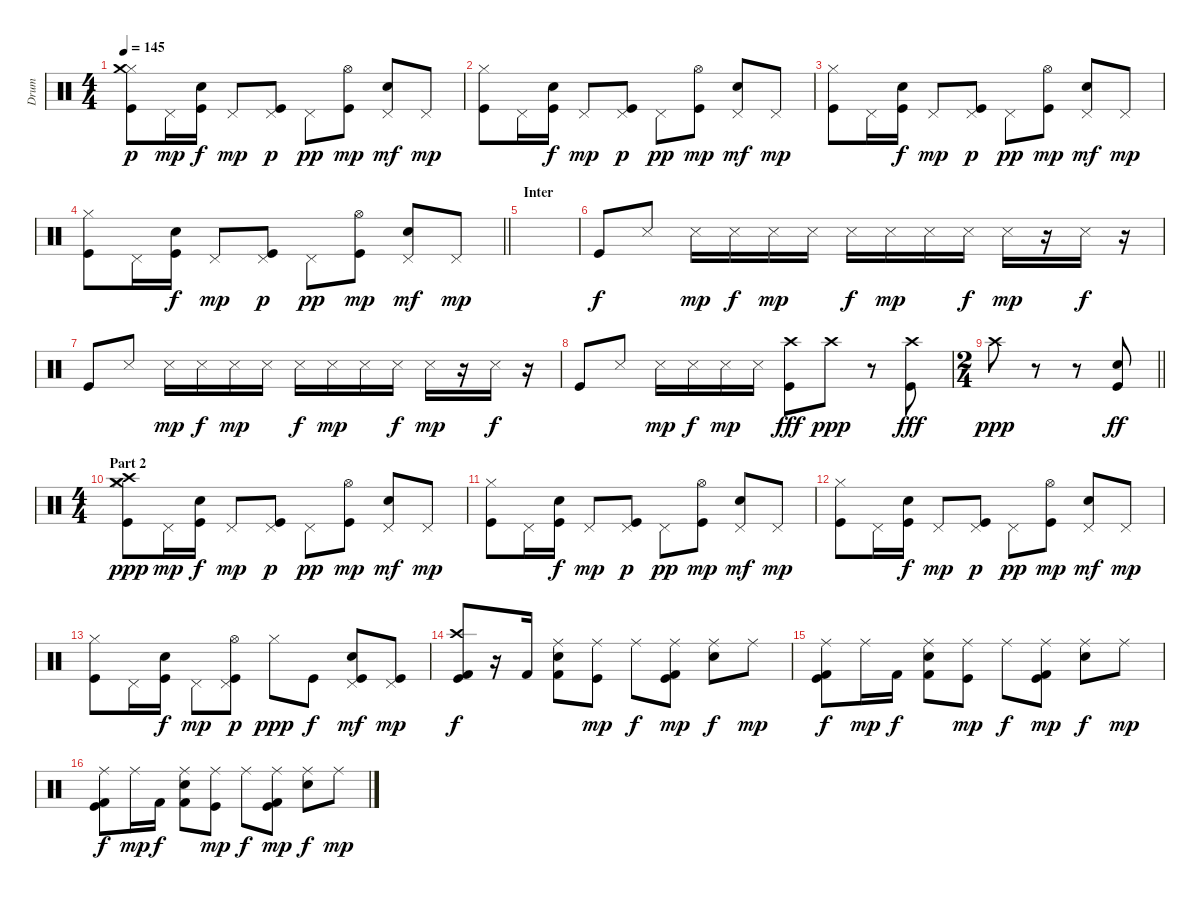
\track ("Drum" "Drum") {instrument percussion}
\staff {score}
\articulation defaults
\ts (4 4)
\tempo 145
\clef neutral
\ks c
("Hi-Hat (closed)" "Crash medium (hit)" "Kick (hit)").8{dy p} "Pedal Hi-Hat (hit)".16{dy mp} ("Electric Snare (hit)" "Kick (hit)").16{dy f} "Pedal Hi-Hat (hit)".8{dy mp} ("Pedal Hi-Hat (hit)" "Kick (hit)").8{dy p} "Pedal Hi-Hat (hit)".8{dy pp} ("Hi-Hat (open)" "Kick (hit)").8{dy mp} ("Pedal Hi-Hat (hit)" "Electric Snare (hit)").8{dy mf} "Pedal Hi-Hat (hit)".8{dy mp} |
("Hi-Hat (closed)" "Kick (hit)").8 "Pedal Hi-Hat (hit)".16 ("Electric Snare (hit)" "Kick (hit)").16{dy f} "Pedal Hi-Hat (hit)".8{dy mp} ("Pedal Hi-Hat (hit)" "Kick (hit)").8{dy p} "Pedal Hi-Hat (hit)".8{dy pp} ("Hi-Hat (open)" "Kick (hit)").8{dy mp} ("Pedal Hi-Hat (hit)" "Electric Snare (hit)").8{dy mf} "Pedal Hi-Hat (hit)".8{dy mp} |
("Hi-Hat (closed)" "Kick (hit)").8 "Pedal Hi-Hat (hit)".16 ("Electric Snare (hit)" "Kick (hit)").16{dy f} "Pedal Hi-Hat (hit)".8{dy mp} ("Pedal Hi-Hat (hit)" "Kick (hit)").8{dy p} "Pedal Hi-Hat (hit)".8{dy pp} ("Hi-Hat (open)" "Kick (hit)").8{dy mp} ("Pedal Hi-Hat (hit)" "Electric Snare (hit)").8{dy mf} "Pedal Hi-Hat (hit)".8{dy mp} |
\barLineRight lightlight
("Hi-Hat (closed)" "Kick (hit)").8 "Pedal Hi-Hat (hit)".16 ("Electric Snare (hit)" "Kick (hit)").16{dy f} "Pedal Hi-Hat (hit)".8{dy mp} ("Pedal Hi-Hat (hit)" "Kick (hit)").8{dy p} "Pedal Hi-Hat (hit)".8{dy pp} ("Hi-Hat (open)" "Kick (hit)").8{dy mp} ("Pedal Hi-Hat (hit)" "Electric Snare (hit)").8{dy mf} "Pedal Hi-Hat (hit)".8{dy mp} |
\section ("" "Inter")
|
"Kick (hit)".8{dy f} "Snare (side stick) 3".8 "Metronome (hit)".16{dy mp} "Snare (side stick) 3".16{dy f} "Metronome (hit)".16{dy mp} "Metronome (hit)".16 "Snare (side stick) 3".16{dy f} "Metronome (hit)".16{dy mp} "Metronome (hit)".16 "Snare (side stick) 3".16{dy f} "Metronome (hit)".16{dy mp} r.16 "Snare (side stick) 3".16{dy f} r.16 |
"Kick (hit)".8 "Snare (side stick) 3".8 "Metronome (hit)".16{dy mp} "Snare (side stick) 3".16{dy f} "Metronome (hit)".16{dy mp} "Metronome (hit)".16 "Snare (side stick) 3".16{dy f} "Metronome (hit)".16{dy mp} "Metronome (hit)".16 "Snare (side stick) 3".16{dy f} "Metronome (hit)".16{dy mp} r.16 "Snare (side stick) 3".16{dy f} r.16 |
"Kick (hit)".8 "Snare (side stick) 3".8 "Metronome (hit)".16{dy mp} "Snare (side stick) 3".16{dy f} "Metronome (hit)".16{dy mp} "Metronome (hit)".16 ("Crash high (hit)" "Kick (hit)").8{dy fff} "Crash high (hit)".8{dy ppp} r.8 ("Crash high (hit)" "Kick (hit)").8{dy fff} |
\ts (2 4)
\barLineRight lightlight "Crash high (hit)".8{dy ppp}
r.8 r.8 ("Snare (hit) 2" "Kick (hit)").8{dy ff} |
\ts (4 4)
\section ("" "Part 2")
("Hi-Hat (closed)" "Crash medium (hit)" "Crash high (hit)" "Kick (hit)").8{dy ppp} "Pedal Hi-Hat (hit)".16{dy mp} ("Electric Snare (hit)" "Kick (hit)").16{dy f} "Pedal Hi-Hat (hit)".8{dy mp} ("Pedal Hi-Hat (hit)" "Kick (hit)").8{dy p} "Pedal Hi-Hat (hit)".8{dy pp} ("Hi-Hat (open)" "Kick (hit)").8{dy mp} ("Pedal Hi-Hat (hit)" "Electric Snare (hit)").8{dy mf} "Pedal Hi-Hat (hit)".8{dy mp} |
("Hi-Hat (closed)" "Kick (hit)").8 "Pedal Hi-Hat (hit)".16 ("Electric Snare (hit)" "Kick (hit)").16{dy f} "Pedal Hi-Hat (hit)".8{dy mp} ("Pedal Hi-Hat (hit)" "Kick (hit)").8{dy p} "Pedal Hi-Hat (hit)".8{dy pp} ("Hi-Hat (open)" "Kick (hit)").8{dy mp} ("Pedal Hi-Hat (hit)" "Electric Snare (hit)").8{dy mf} "Pedal Hi-Hat (hit)".8{dy mp} |
("Hi-Hat (closed)" "Kick (hit)").8 "Pedal Hi-Hat (hit)".16 ("Electric Snare (hit)" "Kick (hit)").16{dy f} "Pedal Hi-Hat (hit)".8{dy mp} ("Pedal Hi-Hat (hit)" "Kick (hit)").8{dy p} "Pedal Hi-Hat (hit)".8{dy pp} ("Hi-Hat (open)" "Kick (hit)").8{dy mp} ("Pedal Hi-Hat (hit)" "Electric Snare (hit)").8{dy mf} "Pedal Hi-Hat (hit)".8{dy mp} |
("Hi-Hat (closed)" "Kick (hit)").8 "Pedal Hi-Hat (hit)".16 ("Electric Snare (hit)" "Kick (hit)").16{dy f} "Pedal Hi-Hat (hit)".8{dy mp} ("Pedal Hi-Hat (hit)" "Hi-Hat (open)" "Kick (hit)").8{dy p} "Hi-Hat (closed)".8{dy ppp} "Kick (hit)".8{dy f} ("Pedal Hi-Hat (hit)" "Electric Snare (hit)" "Kick (hit)").8{dy mf} ("Pedal Hi-Hat (hit)" "Kick (hit)").8{dy mp} |
("Crash high (hit)" "Kick (hit) 2" "Kick (hit)").8{dy f} r.16 "Kick (hit) 2".16 ("Ride (middle)" "Electric Snare (hit)" "Kick (hit) 2").8 ("Ride (middle)" "Kick (hit)").8{dy mp} "Ride (middle)".8{dy f} ("Ride (middle)" "Kick (hit) 2" "Kick (hit)").8{dy mp} ("Ride (middle)" "Electric Snare (hit)").8{dy f} "Ride (middle)".8{dy mp} |
("Ride (middle)" "Kick (hit) 2" "Kick (hit)").8{dy f} "Ride (middle)".16{dy mp} "Kick (hit) 2".16{dy f} ("Ride (middle)" "Electric Snare (hit)" "Kick (hit) 2").8 ("Ride (middle)" "Kick (hit)").8{dy mp} "Ride (middle)".8{dy f} ("Ride (middle)" "Kick (hit) 2" "Kick (hit)").8{dy mp} ("Ride (middle)" "Electric Snare (hit)").8{dy f} "Ride (middle)".8{dy mp} |
("Ride (middle)" "Kick (hit) 2" "Kick (hit)").8{dy f} "Ride (middle)".16{dy mp} "Kick (hit) 2".16{dy f} ("Ride (middle)" "Electric Snare (hit)" "Kick (hit) 2").8 ("Ride (middle)" "Kick (hit)").8{dy mp} "Ride (middle)".8{dy f} ("Ride (middle)" "Kick (hit) 2" "Kick (hit)").8{dy mp} ("Ride (middle)" "Electric Snare (hit)").8{dy f} "Ride (middle)".8{dy mp}
